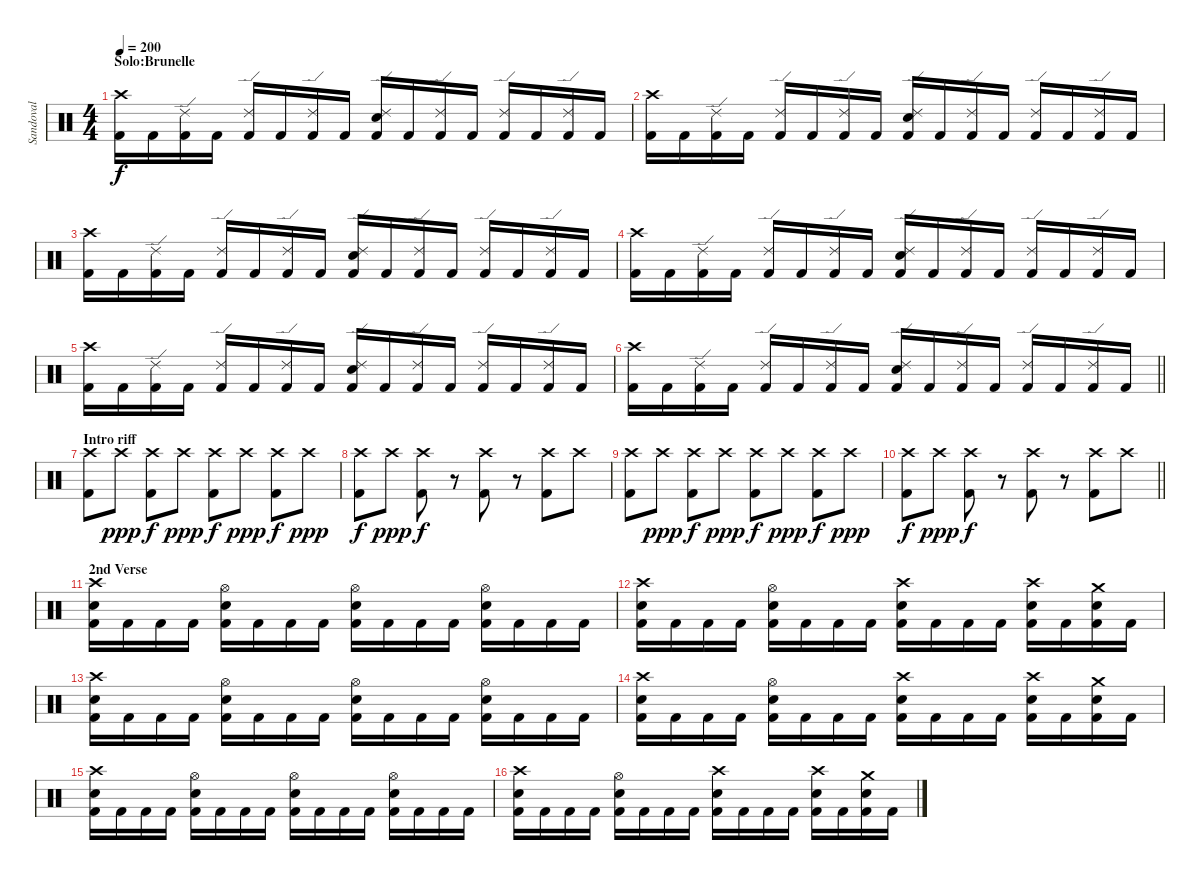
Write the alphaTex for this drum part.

\track ("Sandoval" "Sandoval") {instrument percussion}
\staff {score}
\articulation defaults
\ts (4 4)
\section ("" "Solo:Brunelle")
\tempo 200
\clef neutral
\ks c
("Crash high (hit)" "Kick (hit) 2").16{dy f} "Kick (hit) 2".16 ("Ride (edge) 2" "Kick (hit) 2").16 "Kick (hit) 2".16 ("Ride (edge) 2" "Kick (hit) 2").16 "Kick (hit) 2".16 ("Ride (edge) 2" "Kick (hit) 2").16 "Kick (hit) 2".16 ("Ride (edge) 2" "Electric Snare (hit)" "Kick (hit) 2").16 "Kick (hit) 2".16 ("Ride (edge) 2" "Kick (hit) 2").16 "Kick (hit) 2".16 ("Ride (edge) 2" "Kick (hit) 2").16 "Kick (hit) 2".16 ("Ride (edge) 2" "Kick (hit) 2").16 "Kick (hit) 2".16 |
("Crash high (hit)" "Kick (hit) 2").16 "Kick (hit) 2".16 ("Ride (edge) 2" "Kick (hit) 2").16 "Kick (hit) 2".16 ("Ride (edge) 2" "Kick (hit) 2").16 "Kick (hit) 2".16 ("Ride (edge) 2" "Kick (hit) 2").16 "Kick (hit) 2".16 ("Ride (edge) 2" "Electric Snare (hit)" "Kick (hit) 2").16 "Kick (hit) 2".16 ("Ride (edge) 2" "Kick (hit) 2").16 "Kick (hit) 2".16 ("Ride (edge) 2" "Kick (hit) 2").16 "Kick (hit) 2".16 ("Ride (edge) 2" "Kick (hit) 2").16 "Kick (hit) 2".16 |
("Crash high (hit)" "Kick (hit) 2").16 "Kick (hit) 2".16 ("Ride (edge) 2" "Kick (hit) 2").16 "Kick (hit) 2".16 ("Ride (edge) 2" "Kick (hit) 2").16 "Kick (hit) 2".16 ("Ride (edge) 2" "Kick (hit) 2").16 "Kick (hit) 2".16 ("Ride (edge) 2" "Electric Snare (hit)" "Kick (hit) 2").16 "Kick (hit) 2".16 ("Ride (edge) 2" "Kick (hit) 2").16 "Kick (hit) 2".16 ("Ride (edge) 2" "Kick (hit) 2").16 "Kick (hit) 2".16 ("Ride (edge) 2" "Kick (hit) 2").16 "Kick (hit) 2".16 |
("Crash high (hit)" "Kick (hit) 2").16 "Kick (hit) 2".16 ("Ride (edge) 2" "Kick (hit) 2").16 "Kick (hit) 2".16 ("Ride (edge) 2" "Kick (hit) 2").16 "Kick (hit) 2".16 ("Ride (edge) 2" "Kick (hit) 2").16 "Kick (hit) 2".16 ("Ride (edge) 2" "Electric Snare (hit)" "Kick (hit) 2").16 "Kick (hit) 2".16 ("Ride (edge) 2" "Kick (hit) 2").16 "Kick (hit) 2".16 ("Ride (edge) 2" "Kick (hit) 2").16 "Kick (hit) 2".16 ("Ride (edge) 2" "Kick (hit) 2").16 "Kick (hit) 2".16 |
("Crash high (hit)" "Kick (hit) 2").16 "Kick (hit) 2".16 ("Ride (edge) 2" "Kick (hit) 2").16 "Kick (hit) 2".16 ("Ride (edge) 2" "Kick (hit) 2").16 "Kick (hit) 2".16 ("Ride (edge) 2" "Kick (hit) 2").16 "Kick (hit) 2".16 ("Ride (edge) 2" "Electric Snare (hit)" "Kick (hit) 2").16 "Kick (hit) 2".16 ("Ride (edge) 2" "Kick (hit) 2").16 "Kick (hit) 2".16 ("Ride (edge) 2" "Kick (hit) 2").16 "Kick (hit) 2".16 ("Ride (edge) 2" "Kick (hit) 2").16 "Kick (hit) 2".16 |
\barLineRight lightlight
("Crash high (hit)" "Kick (hit) 2").16 "Kick (hit) 2".16 ("Ride (edge) 2" "Kick (hit) 2").16 "Kick (hit) 2".16 ("Ride (edge) 2" "Kick (hit) 2").16 "Kick (hit) 2".16 ("Ride (edge) 2" "Kick (hit) 2").16 "Kick (hit) 2".16 ("Ride (edge) 2" "Electric Snare (hit)" "Kick (hit) 2").16 "Kick (hit) 2".16 ("Ride (edge) 2" "Kick (hit) 2").16 "Kick (hit) 2".16 ("Ride (edge) 2" "Kick (hit) 2").16 "Kick (hit) 2".16 ("Ride (edge) 2" "Kick (hit) 2").16 "Kick (hit) 2".16 |
\section ("" "Intro riff")
("Crash high (hit)" "Kick (hit) 2").8 "Crash high (hit)".8{dy ppp} ("Crash high (hit)" "Kick (hit) 2").8{dy f} "Crash high (hit)".8{dy ppp} ("Crash high (hit)" "Kick (hit) 2").8{dy f} "Crash high (hit)".8{dy ppp} ("Crash high (hit)" "Kick (hit) 2").8{dy f} "Crash high (hit)".8{dy ppp} |
("Crash high (hit)" "Kick (hit) 2").8{dy f} "Crash high (hit)".8{dy ppp} ("Crash high (hit)" "Kick (hit) 2").8{dy f} r.8 ("Crash high (hit)" "Kick (hit) 2").8 r.8 ("Crash high (hit)" "Kick (hit) 2").8 "Crash high (hit)".8 |
("Crash high (hit)" "Kick (hit) 2").8 "Crash high (hit)".8{dy ppp} ("Crash high (hit)" "Kick (hit) 2").8{dy f} "Crash high (hit)".8{dy ppp} ("Crash high (hit)" "Kick (hit) 2").8{dy f} "Crash high (hit)".8{dy ppp} ("Crash high (hit)" "Kick (hit) 2").8{dy f} "Crash high (hit)".8{dy ppp} |
\barLineRight lightlight
("Crash high (hit)" "Kick (hit) 2").8{dy f} "Crash high (hit)".8{dy ppp} ("Crash high (hit)" "Kick (hit) 2").8{dy f} r.8 ("Crash high (hit)" "Kick (hit) 2").8 r.8 ("Crash high (hit)" "Kick (hit) 2").8 "Crash high (hit)".8 |
\section ("" "2nd Verse")
("Crash high (hit)" "Electric Snare (hit)" "Kick (hit) 2").16 "Kick (hit) 2".16 "Kick (hit) 2".16 "Kick (hit) 2".16 ("Hi-Hat (open)" "Electric Snare (hit)" "Kick (hit) 2").16 "Kick (hit) 2".16 "Kick (hit) 2".16 "Kick (hit) 2".16 ("Hi-Hat (open)" "Electric Snare (hit)" "Kick (hit) 2").16 "Kick (hit) 2".16 "Kick (hit) 2".16 "Kick (hit) 2".16 ("Hi-Hat (open)" "Electric Snare (hit)" "Kick (hit) 2").16 "Kick (hit) 2".16 "Kick (hit) 2".16 "Kick (hit) 2".16 |
("Crash high (hit)" "Electric Snare (hit)" "Kick (hit) 2").16 "Kick (hit) 2".16 "Kick (hit) 2".16 "Kick (hit) 2".16 ("Hi-Hat (open)" "Electric Snare (hit)" "Kick (hit) 2").16 "Kick (hit) 2".16 "Kick (hit) 2".16 "Kick (hit) 2".16 ("Crash high (hit)" "Electric Snare (hit)" "Kick (hit) 2").16 "Kick (hit) 2".16 "Kick (hit) 2".16 "Kick (hit) 2".16 ("Crash high (hit)" "Electric Snare (hit)" "Kick (hit) 2").16 "Kick (hit) 2".16 ("Crash medium (hit)" "Electric Snare (hit)" "Kick (hit) 2").16 "Kick (hit) 2".16 |
("Crash high (hit)" "Electric Snare (hit)" "Kick (hit) 2").16 "Kick (hit) 2".16 "Kick (hit) 2".16 "Kick (hit) 2".16 ("Hi-Hat (open)" "Electric Snare (hit)" "Kick (hit) 2").16 "Kick (hit) 2".16 "Kick (hit) 2".16 "Kick (hit) 2".16 ("Hi-Hat (open)" "Electric Snare (hit)" "Kick (hit) 2").16 "Kick (hit) 2".16 "Kick (hit) 2".16 "Kick (hit) 2".16 ("Hi-Hat (open)" "Electric Snare (hit)" "Kick (hit) 2").16 "Kick (hit) 2".16 "Kick (hit) 2".16 "Kick (hit) 2".16 |
("Crash high (hit)" "Electric Snare (hit)" "Kick (hit) 2").16 "Kick (hit) 2".16 "Kick (hit) 2".16 "Kick (hit) 2".16 ("Hi-Hat (open)" "Electric Snare (hit)" "Kick (hit) 2").16 "Kick (hit) 2".16 "Kick (hit) 2".16 "Kick (hit) 2".16 ("Crash high (hit)" "Electric Snare (hit)" "Kick (hit) 2").16 "Kick (hit) 2".16 "Kick (hit) 2".16 "Kick (hit) 2".16 ("Crash high (hit)" "Electric Snare (hit)" "Kick (hit) 2").16 "Kick (hit) 2".16 ("Crash medium (hit)" "Electric Snare (hit)" "Kick (hit) 2").16 "Kick (hit) 2".16 |
("Crash high (hit)" "Electric Snare (hit)" "Kick (hit) 2").16 "Kick (hit) 2".16 "Kick (hit) 2".16 "Kick (hit) 2".16 ("Hi-Hat (open)" "Electric Snare (hit)" "Kick (hit) 2").16 "Kick (hit) 2".16 "Kick (hit) 2".16 "Kick (hit) 2".16 ("Hi-Hat (open)" "Electric Snare (hit)" "Kick (hit) 2").16 "Kick (hit) 2".16 "Kick (hit) 2".16 "Kick (hit) 2".16 ("Hi-Hat (open)" "Electric Snare (hit)" "Kick (hit) 2").16 "Kick (hit) 2".16 "Kick (hit) 2".16 "Kick (hit) 2".16 |
("Crash high (hit)" "Electric Snare (hit)" "Kick (hit) 2").16 "Kick (hit) 2".16 "Kick (hit) 2".16 "Kick (hit) 2".16 ("Hi-Hat (open)" "Electric Snare (hit)" "Kick (hit) 2").16 "Kick (hit) 2".16 "Kick (hit) 2".16 "Kick (hit) 2".16 ("Crash high (hit)" "Electric Snare (hit)" "Kick (hit) 2").16 "Kick (hit) 2".16 "Kick (hit) 2".16 "Kick (hit) 2".16 ("Crash high (hit)" "Electric Snare (hit)" "Kick (hit) 2").16 "Kick (hit) 2".16 ("Crash medium (hit)" "Electric Snare (hit)" "Kick (hit) 2").16 "Kick (hit) 2".16
